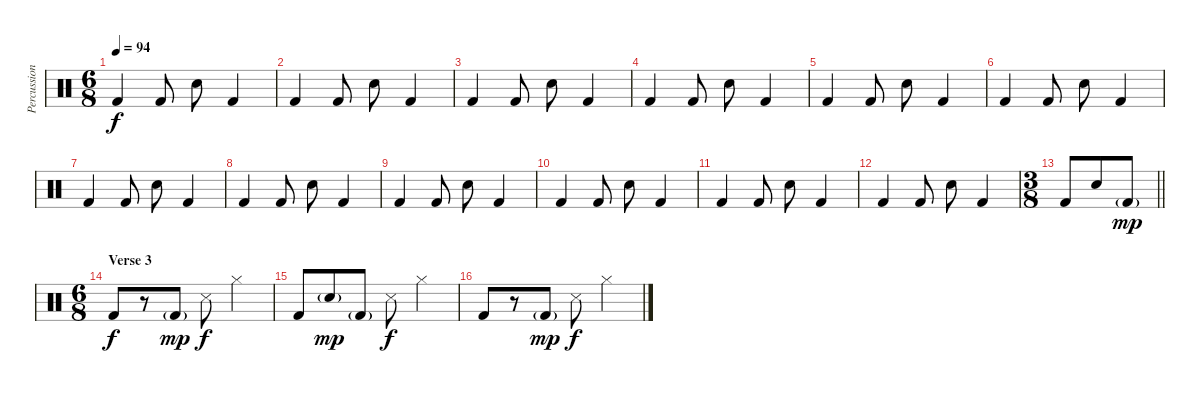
\track ("Percussion" "Percussion") {instrument percussion}
\staff {score}
\articulation defaults
\ts (6 8)
\tempo 94
\clef neutral
\ks c "Kick (hit) 2".4{dy f} "Kick (hit) 2".8 "Snare (hit) 2".8 "Kick (hit) 2".4
|
"Kick (hit) 2".4 "Kick (hit) 2".8 "Snare (hit) 2".8 "Kick (hit) 2".4 |
"Kick (hit) 2".4 "Kick (hit) 2".8 "Snare (hit) 2".8 "Kick (hit) 2".4 |
"Kick (hit) 2".4 "Kick (hit) 2".8 "Snare (hit) 2".8 "Kick (hit) 2".4 |
"Kick (hit) 2".4 "Kick (hit) 2".8 "Snare (hit) 2".8 "Kick (hit) 2".4 |
"Kick (hit) 2".4 "Kick (hit) 2".8 "Snare (hit) 2".8 "Kick (hit) 2".4 |
"Kick (hit) 2".4 "Kick (hit) 2".8 "Snare (hit) 2".8 "Kick (hit) 2".4 |
"Kick (hit) 2".4 "Kick (hit) 2".8 "Snare (hit) 2".8 "Kick (hit) 2".4 |
"Kick (hit) 2".4 "Kick (hit) 2".8 "Snare (hit) 2".8 "Kick (hit) 2".4 |
"Kick (hit) 2".4 "Kick (hit) 2".8 "Snare (hit) 2".8 "Kick (hit) 2".4 |
"Kick (hit) 2".4 "Kick (hit) 2".8 "Snare (hit) 2".8 "Kick (hit) 2".4 |
"Kick (hit) 2".4 "Kick (hit) 2".8 "Snare (hit) 2".8 "Kick (hit) 2".4 |
\ts (3 8)
\barLineRight lightlight "Kick (hit) 2".8 "Snare (hit) 2".8 "Kick (hit) 2"{g}.8{dy mp}
|
\ts (6 8)
\section ("" "Verse 3")
"Kick (hit) 2".8{dy f} r.8 "Kick (hit) 2"{g}.8{dy mp} "Snare (side stick) 3".8{dy f} "Hi-Hat (closed)".4 |
"Kick (hit) 2".8 "Snare (hit) 2"{g}.8{dy mp} "Kick (hit) 2"{g}.8 "Snare (side stick) 3".8{dy f} "Hi-Hat (closed)".4 |
"Kick (hit) 2".8 r.8 "Kick (hit) 2"{g}.8{dy mp} "Snare (side stick) 3".8{dy f} "Hi-Hat (closed)".4
